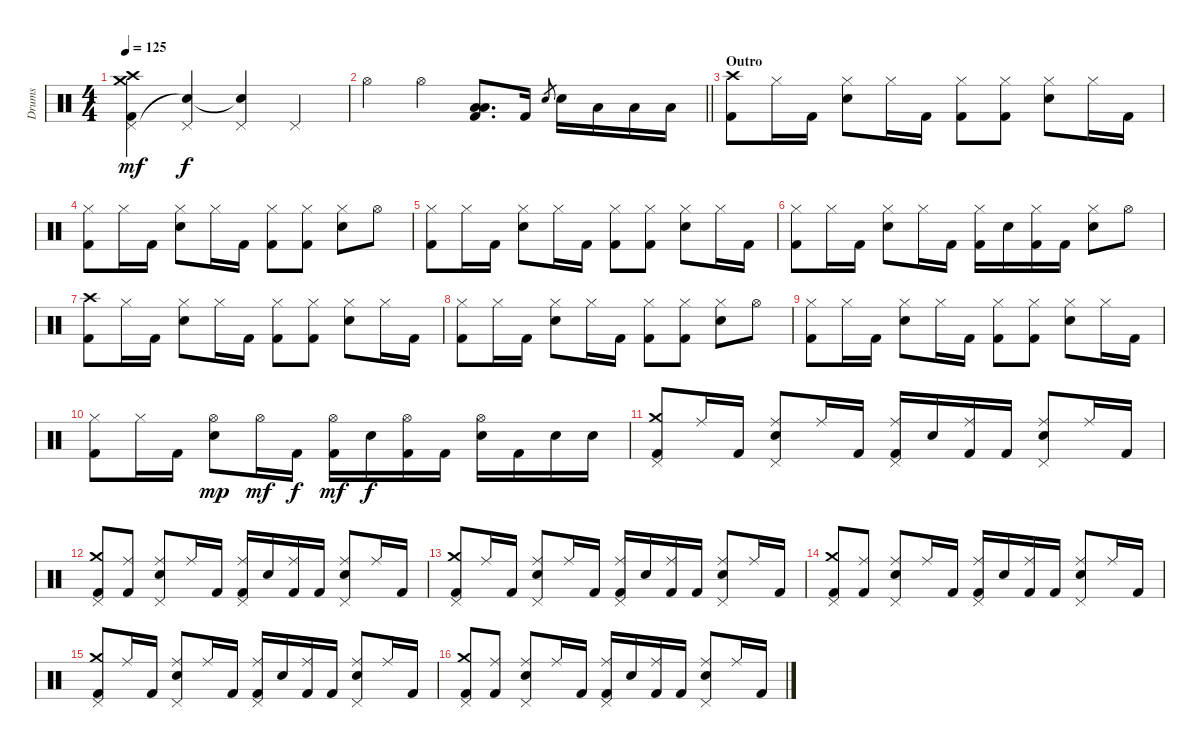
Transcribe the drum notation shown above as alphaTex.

\track ("Drums" "Drums") {instrument percussion}
\staff {score}
\articulation defaults
\ts (4 4)
\tempo 125
\clef neutral
\ks c
("Crash high (hit)" "Pedal Hi-Hat (hit)" "Crash medium (hit)" "Kick (hit) 2").4{dy mf} ("Pedal Hi-Hat (hit)" "Snare (hit)"{t}).4{dy f} ("Pedal Hi-Hat (hit)" "Snare (hit)"{t}).4 "Pedal Hi-Hat (hit)".4 |
\barLineRight lightlight "Hi-Hat (open)".4 "Hi-Hat (open)".4
("Low Tom (hit)" "Low Floor Tom (hit)" "Kick (hit) 2").8{d} "Kick (hit) 2".16 "Electric Snare (hit)".8{gr} "Electric Snare (hit)".16 "Low Floor Tom (hit)".16 "Low Tom (hit)".16 "Low Floor Tom (hit)".16 |
\section ("" "Outro")
("Crash high (hit)" "Kick (hit) 2").8 "Hi-Hat (closed)".16 "Kick (hit) 2".16 ("Hi-Hat (closed)" "Electric Snare (hit)").8 "Hi-Hat (closed)".16 "Kick (hit) 2".16 ("Hi-Hat (closed)" "Kick (hit) 2").8 ("Hi-Hat (closed)" "Kick (hit) 2").8 ("Hi-Hat (closed)" "Electric Snare (hit)").8 "Hi-Hat (closed)".16 "Kick (hit) 2".16 |
("Hi-Hat (closed)" "Kick (hit) 2").8 "Hi-Hat (closed)".16 "Kick (hit) 2".16 ("Hi-Hat (closed)" "Electric Snare (hit)").8 "Hi-Hat (closed)".16 "Kick (hit) 2".16 ("Hi-Hat (closed)" "Kick (hit) 2").8 ("Hi-Hat (closed)" "Kick (hit) 2").8 ("Hi-Hat (closed)" "Electric Snare (hit)").8 "Hi-Hat (open)".8 |
("Hi-Hat (closed)" "Kick (hit) 2").8 "Hi-Hat (closed)".16 "Kick (hit) 2".16 ("Hi-Hat (closed)" "Electric Snare (hit)").8 "Hi-Hat (closed)".16 "Kick (hit) 2".16 ("Hi-Hat (closed)" "Kick (hit) 2").8 ("Hi-Hat (closed)" "Kick (hit) 2").8 ("Hi-Hat (closed)" "Electric Snare (hit)").8 "Hi-Hat (closed)".16 "Kick (hit) 2".16 |
("Hi-Hat (closed)" "Kick (hit) 2").8 "Hi-Hat (closed)".16 "Kick (hit) 2".16 ("Hi-Hat (closed)" "Electric Snare (hit)").8 "Hi-Hat (closed)".16 "Kick (hit) 2".16 ("Hi-Hat (closed)" "Kick (hit) 2").16 "Electric Snare (hit)".16 ("Hi-Hat (closed)" "Kick (hit) 2").16 "Kick (hit) 2".16 ("Hi-Hat (closed)" "Electric Snare (hit)").8 "Hi-Hat (open)".8 |
("Crash high (hit)" "Kick (hit) 2").8 "Hi-Hat (closed)".16 "Kick (hit) 2".16 ("Hi-Hat (closed)" "Electric Snare (hit)").8 "Hi-Hat (closed)".16 "Kick (hit) 2".16 ("Hi-Hat (closed)" "Kick (hit) 2").8 ("Hi-Hat (closed)" "Kick (hit) 2").8 ("Hi-Hat (closed)" "Electric Snare (hit)").8 "Hi-Hat (closed)".16 "Kick (hit) 2".16 |
("Hi-Hat (closed)" "Kick (hit) 2").8 "Hi-Hat (closed)".16 "Kick (hit) 2".16 ("Hi-Hat (closed)" "Electric Snare (hit)").8 "Hi-Hat (closed)".16 "Kick (hit) 2".16 ("Hi-Hat (closed)" "Kick (hit) 2").8 ("Hi-Hat (closed)" "Kick (hit) 2").8 ("Hi-Hat (closed)" "Electric Snare (hit)").8 "Hi-Hat (open)".8 |
("Hi-Hat (closed)" "Kick (hit) 2").8 "Hi-Hat (closed)".16 "Kick (hit) 2".16 ("Hi-Hat (closed)" "Electric Snare (hit)").8 "Hi-Hat (closed)".16 "Kick (hit) 2".16 ("Hi-Hat (closed)" "Kick (hit) 2").8 ("Hi-Hat (closed)" "Kick (hit) 2").8 ("Hi-Hat (closed)" "Electric Snare (hit)").8 "Hi-Hat (closed)".16 "Kick (hit) 2".16 |
("Hi-Hat (closed)" "Kick (hit) 2").8 "Hi-Hat (closed)".16 "Kick (hit) 2".16 ("Hi-Hat (open)" "Electric Snare (hit)").8{dy mp} "Hi-Hat (open)".16{dy mf} "Kick (hit) 2".16{dy f} ("Hi-Hat (open)" "Kick (hit) 2").16{dy mf} "Electric Snare (hit)".16{dy f} ("Hi-Hat (open)" "Kick (hit) 2").16 "Kick (hit) 2".16 ("Hi-Hat (open)" "Electric Snare (hit)").16 "Kick (hit) 2".16 "Electric Snare (hit)".16 "Electric Snare (hit)".16 |
("Pedal Hi-Hat (hit)" "Crash medium (hit)" "Kick (hit) 2").8 "Ride (middle)".16 "Kick (hit) 2".16 ("Pedal Hi-Hat (hit)" "Ride (middle)" "Electric Snare (hit)").8 "Ride (middle)".16 "Kick (hit) 2".16 ("Pedal Hi-Hat (hit)" "Ride (middle)" "Kick (hit) 2").16 "Electric Snare (hit)".16 ("Ride (middle)" "Kick (hit) 2").16 "Kick (hit) 2".16 ("Pedal Hi-Hat (hit)" "Ride (middle)" "Electric Snare (hit)").8 "Ride (middle)".16 "Kick (hit) 2".16 |
("Pedal Hi-Hat (hit)" "Crash medium (hit)" "Kick (hit) 2").8 ("Ride (middle)" "Kick (hit) 2").8 ("Pedal Hi-Hat (hit)" "Ride (middle)" "Electric Snare (hit)").8 "Ride (middle)".16 "Kick (hit) 2".16 ("Pedal Hi-Hat (hit)" "Ride (middle)" "Kick (hit) 2").16 "Electric Snare (hit)".16 ("Ride (middle)" "Kick (hit) 2").16 "Kick (hit) 2".16 ("Pedal Hi-Hat (hit)" "Ride (middle)" "Electric Snare (hit)").8 "Ride (middle)".16 "Kick (hit) 2".16 |
("Pedal Hi-Hat (hit)" "Crash medium (hit)" "Kick (hit) 2").8 "Ride (middle)".16 "Kick (hit) 2".16 ("Pedal Hi-Hat (hit)" "Ride (middle)" "Electric Snare (hit)").8 "Ride (middle)".16 "Kick (hit) 2".16 ("Pedal Hi-Hat (hit)" "Ride (middle)" "Kick (hit) 2").16 "Electric Snare (hit)".16 ("Ride (middle)" "Kick (hit) 2").16 "Kick (hit) 2".16 ("Pedal Hi-Hat (hit)" "Ride (middle)" "Electric Snare (hit)").8 "Ride (middle)".16 "Kick (hit) 2".16 |
("Pedal Hi-Hat (hit)" "Crash medium (hit)" "Kick (hit) 2").8 ("Ride (middle)" "Kick (hit) 2").8 ("Pedal Hi-Hat (hit)" "Ride (middle)" "Electric Snare (hit)").8 "Ride (middle)".16 "Kick (hit) 2".16 ("Pedal Hi-Hat (hit)" "Ride (middle)" "Kick (hit) 2").16 "Electric Snare (hit)".16 ("Ride (middle)" "Kick (hit) 2").16 "Kick (hit) 2".16 ("Pedal Hi-Hat (hit)" "Ride (middle)" "Electric Snare (hit)").8 "Ride (middle)".16 "Kick (hit) 2".16 |
("Pedal Hi-Hat (hit)" "Crash medium (hit)" "Kick (hit) 2").8 "Ride (middle)".16 "Kick (hit) 2".16 ("Pedal Hi-Hat (hit)" "Ride (middle)" "Electric Snare (hit)").8 "Ride (middle)".16 "Kick (hit) 2".16 ("Pedal Hi-Hat (hit)" "Ride (middle)" "Kick (hit) 2").16 "Electric Snare (hit)".16 ("Ride (middle)" "Kick (hit) 2").16 "Kick (hit) 2".16 ("Pedal Hi-Hat (hit)" "Ride (middle)" "Electric Snare (hit)").8 "Ride (middle)".16 "Kick (hit) 2".16 |
("Pedal Hi-Hat (hit)" "Crash medium (hit)" "Kick (hit) 2").8 ("Ride (middle)" "Kick (hit) 2").8 ("Pedal Hi-Hat (hit)" "Ride (middle)" "Electric Snare (hit)").8 "Ride (middle)".16 "Kick (hit) 2".16 ("Pedal Hi-Hat (hit)" "Ride (middle)" "Kick (hit) 2").16 "Electric Snare (hit)".16 ("Ride (middle)" "Kick (hit) 2").16 "Kick (hit) 2".16 ("Pedal Hi-Hat (hit)" "Ride (middle)" "Electric Snare (hit)").8 "Ride (middle)".16 "Kick (hit) 2".16
